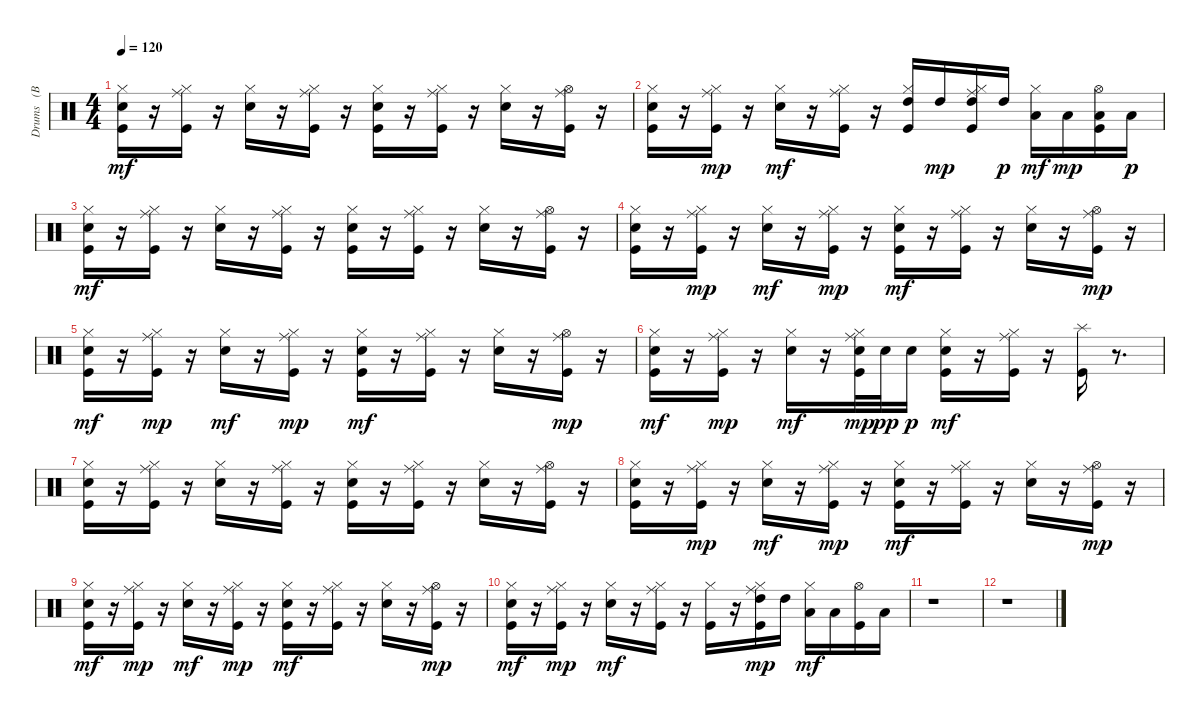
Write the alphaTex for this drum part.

\track ("Drums   (BB)" "Drums   (B") {instrument percussion}
\staff {score}
\articulation defaults
\ts (4 4)
\tempo 120
\clef neutral
\ks c
("Kick (hit)" "Electric Snare (hit)" "Hi-Hat (closed)").16{dy mf} r.16 ("Kick (hit)" "Hi-Hat (closed)" "Ride (middle)").16 r.16 ("Electric Snare (hit)" "Hi-Hat (closed)").16 r.16 ("Kick (hit)" "Hi-Hat (closed)" "Ride (middle)").16 r.16 ("Kick (hit)" "Electric Snare (hit)" "Hi-Hat (closed)").16 r.16 ("Kick (hit)" "Hi-Hat (closed)" "Ride (middle)").16 r.16 ("Electric Snare (hit)" "Hi-Hat (closed)").16 r.16 ("Kick (hit)" "Hi-Hat (open)" "Ride (middle)").16 r.16 |
("Kick (hit)" "Electric Snare (hit)" "Hi-Hat (closed)").16 r.16 ("Kick (hit)" "Hi-Hat (closed)" "Ride (middle)").16{dy mp} r.16 ("Electric Snare (hit)" "Hi-Hat (closed)").16{dy mf} r.16 ("Kick (hit)" "Hi-Hat (closed)" "Ride (middle)").16 r.16 ("Kick (hit)" "Hi-Hat (closed)" "High Tom (hit)").16 "High Tom (hit)".16{dy mp} ("Kick (hit)" "Hi-Hat (closed)" "Ride (middle)" "High Tom (hit)").16 "High Tom (hit)".16{dy p} ("Hi-Hat (closed)" "Low Tom (hit)").16{dy mf} "Low Tom (hit)".16{dy mp} ("Kick (hit)" "Hi-Hat (open)" "Low Tom (hit)").16 "Low Tom (hit)".16{dy p} |
("Kick (hit)" "Electric Snare (hit)" "Hi-Hat (closed)").16{dy mf} r.16 ("Kick (hit)" "Hi-Hat (closed)" "Ride (middle)").16 r.16 ("Electric Snare (hit)" "Hi-Hat (closed)").16 r.16 ("Kick (hit)" "Hi-Hat (closed)" "Ride (middle)").16 r.16 ("Kick (hit)" "Electric Snare (hit)" "Hi-Hat (closed)").16 r.16 ("Kick (hit)" "Hi-Hat (closed)" "Ride (middle)").16 r.16 ("Electric Snare (hit)" "Hi-Hat (closed)").16 r.16 ("Kick (hit)" "Hi-Hat (open)" "Ride (middle)").16 r.16 |
("Kick (hit)" "Electric Snare (hit)" "Hi-Hat (closed)").16 r.16 ("Kick (hit)" "Hi-Hat (closed)" "Ride (middle)").16{dy mp} r.16 ("Electric Snare (hit)" "Hi-Hat (closed)").16{dy mf} r.16 ("Kick (hit)" "Hi-Hat (closed)" "Ride (middle)").16{dy mp} r.16 ("Kick (hit)" "Electric Snare (hit)" "Hi-Hat (closed)").16{dy mf} r.16 ("Kick (hit)" "Hi-Hat (closed)" "Ride (middle)").16 r.16 ("Electric Snare (hit)" "Hi-Hat (closed)").16 r.16 ("Kick (hit)" "Hi-Hat (open)" "Ride (middle)").16{dy mp} r.16 |
("Kick (hit)" "Electric Snare (hit)" "Hi-Hat (closed)").16{dy mf} r.16 ("Kick (hit)" "Hi-Hat (closed)" "Ride (middle)").16{dy mp} r.16 ("Electric Snare (hit)" "Hi-Hat (closed)").16{dy mf} r.16 ("Kick (hit)" "Hi-Hat (closed)" "Ride (middle)").16{dy mp} r.16 ("Kick (hit)" "Electric Snare (hit)" "Hi-Hat (closed)").16{dy mf} r.16 ("Kick (hit)" "Hi-Hat (closed)" "Ride (middle)").16 r.16 ("Electric Snare (hit)" "Hi-Hat (closed)").16 r.16 ("Kick (hit)" "Hi-Hat (open)" "Ride (middle)").16{dy mp} r.16 |
("Kick (hit)" "Electric Snare (hit)" "Hi-Hat (closed)").16{dy mf} r.16 ("Kick (hit)" "Hi-Hat (closed)" "Ride (middle)").16{dy mp} r.16 ("Electric Snare (hit)" "Hi-Hat (closed)").16{dy mf} r.16 ("Kick (hit)" "Electric Snare (hit)" "Hi-Hat (closed)" "Ride (middle)").32{dy mp} "Electric Snare (hit)".32{dy pp} "Electric Snare (hit)".16{dy p} ("Kick (hit)" "Electric Snare (hit)" "Hi-Hat (closed)").16{dy mf} r.16 ("Kick (hit)" "Hi-Hat (closed)" "Ride (middle)").16 r.16 ("Kick (hit)" "Splash (hit)").16 r.8{d} |
("Kick (hit)" "Electric Snare (hit)" "Hi-Hat (closed)").16 r.16 ("Kick (hit)" "Hi-Hat (closed)" "Ride (middle)").16 r.16 ("Electric Snare (hit)" "Hi-Hat (closed)").16 r.16 ("Kick (hit)" "Hi-Hat (closed)" "Ride (middle)").16 r.16 ("Kick (hit)" "Electric Snare (hit)" "Hi-Hat (closed)").16 r.16 ("Kick (hit)" "Hi-Hat (closed)" "Ride (middle)").16 r.16 ("Electric Snare (hit)" "Hi-Hat (closed)").16 r.16 ("Kick (hit)" "Hi-Hat (open)" "Ride (middle)").16 r.16 |
("Kick (hit)" "Electric Snare (hit)" "Hi-Hat (closed)").16 r.16 ("Kick (hit)" "Hi-Hat (closed)" "Ride (middle)").16{dy mp} r.16 ("Electric Snare (hit)" "Hi-Hat (closed)").16{dy mf} r.16 ("Kick (hit)" "Hi-Hat (closed)" "Ride (middle)").16{dy mp} r.16 ("Kick (hit)" "Electric Snare (hit)" "Hi-Hat (closed)").16{dy mf} r.16 ("Kick (hit)" "Hi-Hat (closed)" "Ride (middle)").16 r.16 ("Electric Snare (hit)" "Hi-Hat (closed)").16 r.16 ("Kick (hit)" "Hi-Hat (open)" "Ride (middle)").16{dy mp} r.16 |
("Kick (hit)" "Electric Snare (hit)" "Hi-Hat (closed)").16{dy mf} r.16 ("Kick (hit)" "Hi-Hat (closed)" "Ride (middle)").16{dy mp} r.16 ("Electric Snare (hit)" "Hi-Hat (closed)").16{dy mf} r.16 ("Kick (hit)" "Hi-Hat (closed)" "Ride (middle)").16{dy mp} r.16 ("Kick (hit)" "Electric Snare (hit)" "Hi-Hat (closed)").16{dy mf} r.16 ("Kick (hit)" "Hi-Hat (closed)" "Ride (middle)").16 r.16 ("Electric Snare (hit)" "Hi-Hat (closed)").16 r.16 ("Kick (hit)" "Hi-Hat (open)" "Ride (middle)").16{dy mp} r.16 |
("Kick (hit)" "Electric Snare (hit)" "Hi-Hat (closed)").16{dy mf} r.16 ("Kick (hit)" "Hi-Hat (closed)" "Ride (middle)").16{dy mp} r.16 ("Electric Snare (hit)" "Hi-Hat (closed)").16{dy mf} r.16 ("Kick (hit)" "Hi-Hat (closed)" "Ride (middle)").16 r.16 ("Kick (hit)" "Hi-Hat (closed)").16 r.16 ("Kick (hit)" "Hi-Hat (closed)" "Ride (middle)" "High Tom (hit)").16{dy mp} "High Tom (hit)".16 ("Hi-Hat (closed)" "Low Tom (hit)").16{dy mf} "Low Tom (hit)".16 ("Kick (hit)" "Hi-Hat (open)").16 "Low Tom (hit)".16 |
r.1 |
r.1
